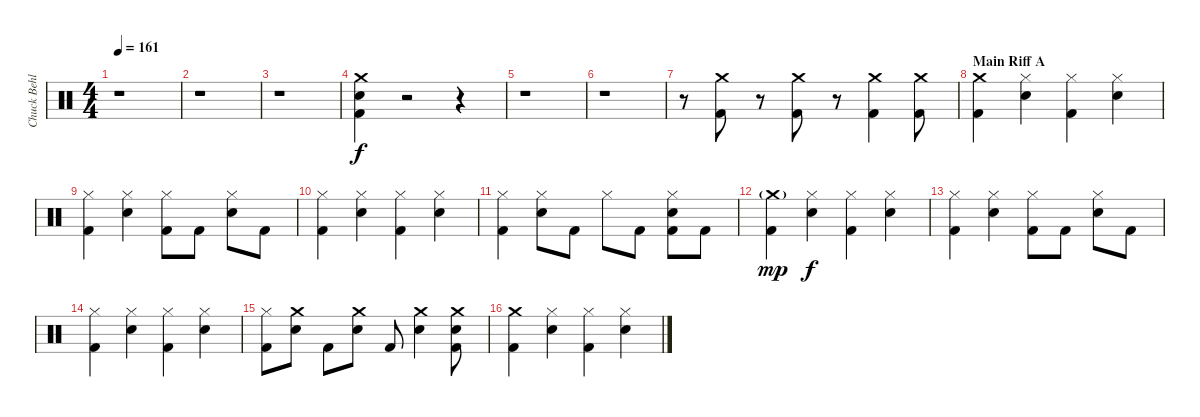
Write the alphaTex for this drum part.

\track ("Chuck Behler" "Chuck Behl") {instrument percussion}
\staff {score}
\articulation defaults
\ts (4 4)
\tempo 161
\clef neutral
\ks c
r.1{dy f} |
r.1 |
r.1 |
("Crash medium (hit)" "Snare (hit) 2" "Kick (hit) 2").4{volume 0} r.2 r.4 |
r.1 |
r.1 |
r.8{volume 16} ("Crash medium (hit)" "Kick (hit) 2").8 r.8 ("Crash medium (hit)" "Kick (hit) 2").8 r.8 ("Crash medium (hit)" "Kick (hit) 2").4 ("Crash medium (hit)" "Kick (hit) 2").8 |
\section ("" "Main Riff A")
("Crash medium (hit)" "Kick (hit) 2").4 ("Hi-Hat (closed)" "Snare (hit) 2").4 ("Hi-Hat (closed)" "Kick (hit) 2").4 ("Hi-Hat (closed)" "Snare (hit) 2").4 |
("Hi-Hat (closed)" "Kick (hit) 2").4 ("Hi-Hat (closed)" "Snare (hit) 2").4 ("Hi-Hat (closed)" "Kick (hit) 2").8 "Kick (hit) 2".8 ("Hi-Hat (closed)" "Snare (hit) 2").8 "Kick (hit) 2".8 |
("Hi-Hat (closed)" "Kick (hit) 2").4 ("Hi-Hat (closed)" "Snare (hit) 2").4 ("Hi-Hat (closed)" "Kick (hit) 2").4 ("Hi-Hat (closed)" "Snare (hit) 2").4 |
("Hi-Hat (closed)" "Kick (hit) 2").4 ("Hi-Hat (closed)" "Snare (hit) 2").8 "Kick (hit) 2".8 "Hi-Hat (closed)".8 "Kick (hit) 2".8 ("Hi-Hat (closed)" "Snare (hit) 2" "Kick (hit) 2").8 "Kick (hit) 2".8 |
("Crash medium (hit)"{g} "Kick (hit) 2").4{dy mp} ("Hi-Hat (closed)" "Snare (hit) 2").4{dy f} ("Hi-Hat (closed)" "Kick (hit) 2").4 ("Hi-Hat (closed)" "Snare (hit) 2").4 |
("Hi-Hat (closed)" "Kick (hit) 2").4 ("Hi-Hat (closed)" "Snare (hit) 2").4 ("Hi-Hat (closed)" "Kick (hit) 2").8 "Kick (hit) 2".8 ("Hi-Hat (closed)" "Snare (hit) 2").8 "Kick (hit) 2".8 |
("Hi-Hat (closed)" "Kick (hit) 2").4 ("Hi-Hat (closed)" "Snare (hit) 2").4 ("Hi-Hat (closed)" "Kick (hit) 2").4 ("Hi-Hat (closed)" "Snare (hit) 2").4 |
("Hi-Hat (closed)" "Kick (hit) 2").8 ("Crash medium (hit)" "Snare (hit) 2").8 "Kick (hit) 2".8 ("Crash medium (hit)" "Snare (hit) 2").8 "Kick (hit) 2".8 ("Crash medium (hit)" "Snare (hit) 2").4 ("Crash medium (hit)" "Snare (hit) 2" "Kick (hit) 2").8 |
("Crash medium (hit)" "Kick (hit) 2").4 ("Hi-Hat (closed)" "Snare (hit) 2").4 ("Hi-Hat (closed)" "Kick (hit) 2").4 ("Hi-Hat (closed)" "Snare (hit) 2").4
